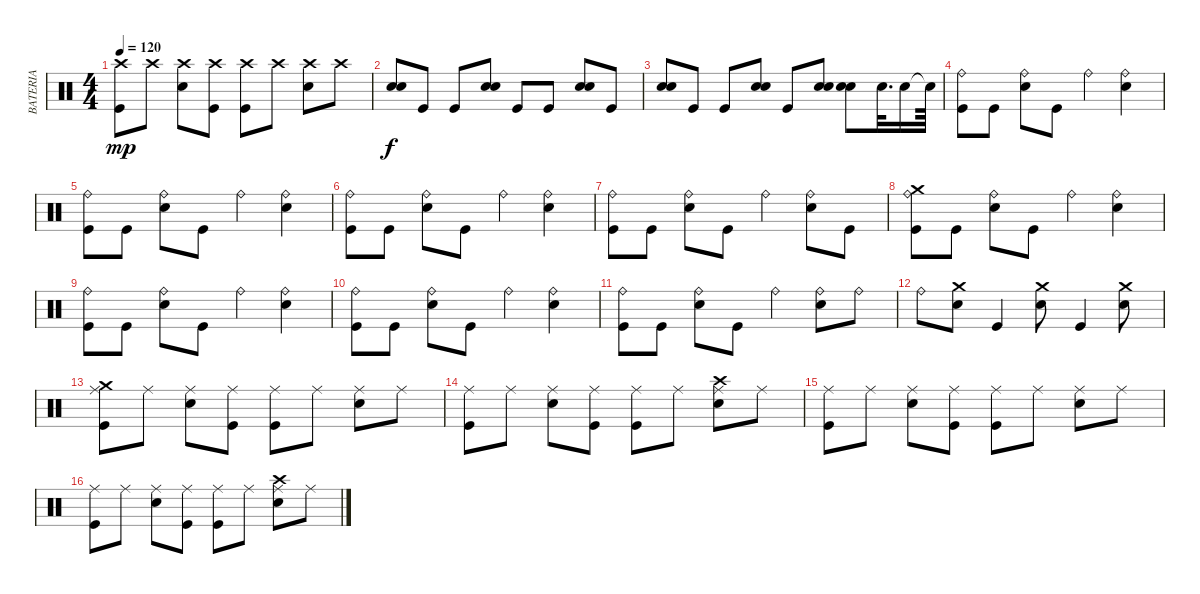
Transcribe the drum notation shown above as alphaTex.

\track ("BATERIA" "BATERIA") {instrument percussion}
\staff {score}
\articulation defaults
\ts (4 4)
\tempo 120
\clef neutral
\ks c
("Crash high (hit)" "Kick (hit)").8{dy mp} "Crash high (hit)".8 ("Crash high (hit)" "Snare (hit) 2").8 ("Crash high (hit)" "Kick (hit)").8 ("Crash high (hit)" "Kick (hit)").8 "Crash high (hit)".8 ("Crash high (hit)" "Snare (hit) 2").8 "Crash high (hit)".8 |
("Snare (hit) 2" "Snare (hit) 2").8{dy f} "Kick (hit)".8 "Kick (hit)".8 ("Snare (hit) 2" "Snare (hit) 2").8 "Kick (hit)".8 "Kick (hit)".8 ("Snare (hit) 2" "Snare (hit) 2").8 "Kick (hit)".8 |
("Snare (hit) 2" "Snare (hit) 2").8 "Kick (hit)".8 "Kick (hit)".8 ("Snare (hit) 2" "Snare (hit) 2").8 "Kick (hit)".8 ("Snare (hit) 2" "Snare (hit) 2").8 ("Snare (hit) 2" "Snare (hit) 2").8 "Snare (hit) 2".32{d} "Snare (hit) 2".16 "Snare (hit)"{t}.64 |
("Ride (bell)" "Kick (hit)").8 "Kick (hit)".8 ("Ride (bell)" "Snare (hit) 2").8 "Kick (hit)".8 "Ride (bell)".4 ("Ride (bell)" "Snare (hit) 2").4 |
("Ride (bell)" "Kick (hit)").8 "Kick (hit)".8 ("Ride (bell)" "Snare (hit) 2").8 "Kick (hit)".8 "Ride (bell)".4 ("Ride (bell)" "Snare (hit) 2").4 |
("Ride (bell)" "Kick (hit)").8 "Kick (hit)".8 ("Ride (bell)" "Snare (hit) 2").8 "Kick (hit)".8 "Ride (bell)".4 ("Ride (bell)" "Snare (hit) 2").4 |
("Ride (bell)" "Kick (hit)").8 "Kick (hit)".8 ("Ride (bell)" "Snare (hit) 2").8 "Kick (hit)".8 "Ride (bell)".4 ("Ride (bell)" "Snare (hit) 2").8 "Kick (hit)".8 |
("Crash medium (hit)" "Ride (bell)" "Kick (hit)").8 "Kick (hit)".8 ("Ride (bell)" "Snare (hit) 2").8 "Kick (hit)".8 "Ride (bell)".4 ("Ride (bell)" "Snare (hit) 2").4 |
("Ride (bell)" "Kick (hit)").8 "Kick (hit)".8 ("Ride (bell)" "Snare (hit) 2").8 "Kick (hit)".8 "Ride (bell)".4 ("Ride (bell)" "Snare (hit) 2").4 |
("Ride (bell)" "Kick (hit)").8 "Kick (hit)".8 ("Ride (bell)" "Snare (hit) 2").8 "Kick (hit)".8 "Ride (bell)".4 ("Ride (bell)" "Snare (hit) 2").4 |
("Ride (bell)" "Kick (hit)").8 "Kick (hit)".8 ("Ride (bell)" "Snare (hit) 2").8 "Kick (hit)".8 "Ride (bell)".4 ("Ride (bell)" "Snare (hit) 2").8 "Ride (bell)".8 |
"Ride (bell)".8 ("Crash medium (hit)" "Snare (hit) 2").8 "Kick (hit)".4 ("Crash medium (hit)" "Snare (hit) 2").8 "Kick (hit)".4 ("Crash medium (hit)" "Snare (hit) 2").8 |
("Crash medium (hit)" "Ride (middle)" "Kick (hit)").8 "Ride (middle)".8 ("Ride (middle)" "Snare (hit) 2").8 ("Ride (middle)" "Kick (hit)").8 ("Ride (middle)" "Kick (hit)").8 "Ride (middle)".8 ("Ride (middle)" "Snare (hit) 2").8 "Ride (middle)".8 |
("Ride (middle)" "Kick (hit)").8 "Ride (middle)".8 ("Ride (middle)" "Snare (hit) 2").8 ("Ride (middle)" "Kick (hit)").8 ("Ride (middle)" "Kick (hit)").8 "Ride (middle)".8 ("Crash high (hit)" "Ride (middle)" "Snare (hit) 2").8 "Ride (middle)".8 |
("Ride (middle)" "Kick (hit)").8 "Ride (middle)".8 ("Ride (middle)" "Snare (hit) 2").8 ("Ride (middle)" "Kick (hit)").8 ("Ride (middle)" "Kick (hit)").8 "Ride (middle)".8 ("Ride (middle)" "Snare (hit) 2").8 "Ride (middle)".8 |
("Ride (middle)" "Kick (hit)").8 "Ride (middle)".8 ("Ride (middle)" "Snare (hit) 2").8 ("Ride (middle)" "Kick (hit)").8 ("Ride (middle)" "Kick (hit)").8 "Ride (middle)".8 ("Crash high (hit)" "Ride (middle)" "Snare (hit) 2").8 "Ride (middle)".8
